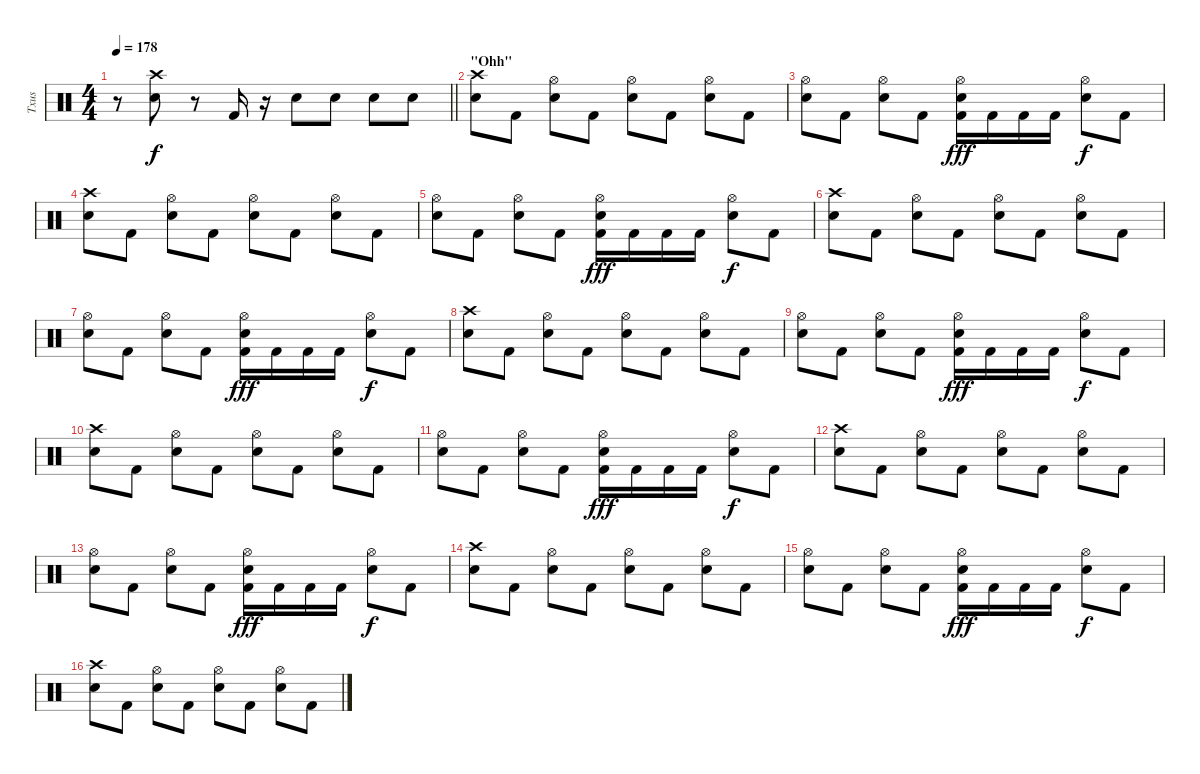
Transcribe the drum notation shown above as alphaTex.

\track ("Txus" "Txus") {instrument percussion}
\staff {score}
\articulation defaults
\ts (4 4)
\tempo 178
\clef neutral
\barLineRight lightlight
\ks c
r.8{dy f} ("Crash high (hit)" "Electric Snare (hit)").8 r.8 "Kick (hit) 2".16 r.16 "Electric Snare (hit)".8 "Electric Snare (hit)".8 "Electric Snare (hit)".8 "Electric Snare (hit)".8 |
\section ("" "\"Ohh\"")
("Crash high (hit)" "Electric Snare (hit)").8 "Kick (hit) 2".8 ("Hi-Hat (open)" "Electric Snare (hit)").8 "Kick (hit) 2".8 ("Hi-Hat (open)" "Electric Snare (hit)").8 "Kick (hit) 2".8 ("Hi-Hat (open)" "Electric Snare (hit)").8 "Kick (hit) 2".8 |
("Hi-Hat (open)" "Electric Snare (hit)").8 "Kick (hit) 2".8 ("Hi-Hat (open)" "Electric Snare (hit)").8 "Kick (hit) 2".8 ("Hi-Hat (open)" "Electric Snare (hit)" "Kick (hit) 2").16{dy fff} "Kick (hit) 2".16 "Kick (hit) 2".16 "Kick (hit) 2".16 ("Hi-Hat (open)" "Electric Snare (hit)").8{dy f} "Kick (hit) 2".8 |
("Crash high (hit)" "Electric Snare (hit)").8 "Kick (hit) 2".8 ("Hi-Hat (open)" "Electric Snare (hit)").8 "Kick (hit) 2".8 ("Hi-Hat (open)" "Electric Snare (hit)").8 "Kick (hit) 2".8 ("Hi-Hat (open)" "Electric Snare (hit)").8 "Kick (hit) 2".8 |
("Hi-Hat (open)" "Electric Snare (hit)").8 "Kick (hit) 2".8 ("Hi-Hat (open)" "Electric Snare (hit)").8 "Kick (hit) 2".8 ("Hi-Hat (open)" "Electric Snare (hit)" "Kick (hit) 2").16{dy fff} "Kick (hit) 2".16 "Kick (hit) 2".16 "Kick (hit) 2".16 ("Hi-Hat (open)" "Electric Snare (hit)").8{dy f} "Kick (hit) 2".8 |
("Crash high (hit)" "Electric Snare (hit)").8 "Kick (hit) 2".8 ("Hi-Hat (open)" "Electric Snare (hit)").8 "Kick (hit) 2".8 ("Hi-Hat (open)" "Electric Snare (hit)").8 "Kick (hit) 2".8 ("Hi-Hat (open)" "Electric Snare (hit)").8 "Kick (hit) 2".8 |
("Hi-Hat (open)" "Electric Snare (hit)").8 "Kick (hit) 2".8 ("Hi-Hat (open)" "Electric Snare (hit)").8 "Kick (hit) 2".8 ("Hi-Hat (open)" "Electric Snare (hit)" "Kick (hit) 2").16{dy fff} "Kick (hit) 2".16 "Kick (hit) 2".16 "Kick (hit) 2".16 ("Hi-Hat (open)" "Electric Snare (hit)").8{dy f} "Kick (hit) 2".8 |
("Crash high (hit)" "Electric Snare (hit)").8 "Kick (hit) 2".8 ("Hi-Hat (open)" "Electric Snare (hit)").8 "Kick (hit) 2".8 ("Hi-Hat (open)" "Electric Snare (hit)").8 "Kick (hit) 2".8 ("Hi-Hat (open)" "Electric Snare (hit)").8 "Kick (hit) 2".8 |
("Hi-Hat (open)" "Electric Snare (hit)").8 "Kick (hit) 2".8 ("Hi-Hat (open)" "Electric Snare (hit)").8 "Kick (hit) 2".8 ("Hi-Hat (open)" "Electric Snare (hit)" "Kick (hit) 2").16{dy fff} "Kick (hit) 2".16 "Kick (hit) 2".16 "Kick (hit) 2".16 ("Hi-Hat (open)" "Electric Snare (hit)").8{dy f} "Kick (hit) 2".8 |
("Crash high (hit)" "Electric Snare (hit)").8 "Kick (hit) 2".8 ("Hi-Hat (open)" "Electric Snare (hit)").8 "Kick (hit) 2".8 ("Hi-Hat (open)" "Electric Snare (hit)").8 "Kick (hit) 2".8 ("Hi-Hat (open)" "Electric Snare (hit)").8 "Kick (hit) 2".8 |
("Hi-Hat (open)" "Electric Snare (hit)").8 "Kick (hit) 2".8 ("Hi-Hat (open)" "Electric Snare (hit)").8 "Kick (hit) 2".8 ("Hi-Hat (open)" "Electric Snare (hit)" "Kick (hit) 2").16{dy fff} "Kick (hit) 2".16 "Kick (hit) 2".16 "Kick (hit) 2".16 ("Hi-Hat (open)" "Electric Snare (hit)").8{dy f} "Kick (hit) 2".8 |
("Crash high (hit)" "Electric Snare (hit)").8 "Kick (hit) 2".8 ("Hi-Hat (open)" "Electric Snare (hit)").8 "Kick (hit) 2".8 ("Hi-Hat (open)" "Electric Snare (hit)").8 "Kick (hit) 2".8 ("Hi-Hat (open)" "Electric Snare (hit)").8 "Kick (hit) 2".8 |
("Hi-Hat (open)" "Electric Snare (hit)").8 "Kick (hit) 2".8 ("Hi-Hat (open)" "Electric Snare (hit)").8 "Kick (hit) 2".8 ("Hi-Hat (open)" "Electric Snare (hit)" "Kick (hit) 2").16{dy fff} "Kick (hit) 2".16 "Kick (hit) 2".16 "Kick (hit) 2".16 ("Hi-Hat (open)" "Electric Snare (hit)").8{dy f} "Kick (hit) 2".8 |
("Crash high (hit)" "Electric Snare (hit)").8 "Kick (hit) 2".8 ("Hi-Hat (open)" "Electric Snare (hit)").8 "Kick (hit) 2".8 ("Hi-Hat (open)" "Electric Snare (hit)").8 "Kick (hit) 2".8 ("Hi-Hat (open)" "Electric Snare (hit)").8 "Kick (hit) 2".8 |
("Hi-Hat (open)" "Electric Snare (hit)").8 "Kick (hit) 2".8 ("Hi-Hat (open)" "Electric Snare (hit)").8 "Kick (hit) 2".8 ("Hi-Hat (open)" "Electric Snare (hit)" "Kick (hit) 2").16{dy fff} "Kick (hit) 2".16 "Kick (hit) 2".16 "Kick (hit) 2".16 ("Hi-Hat (open)" "Electric Snare (hit)").8{dy f} "Kick (hit) 2".8 |
("Crash high (hit)" "Electric Snare (hit)").8 "Kick (hit) 2".8 ("Hi-Hat (open)" "Electric Snare (hit)").8 "Kick (hit) 2".8 ("Hi-Hat (open)" "Electric Snare (hit)").8 "Kick (hit) 2".8 ("Hi-Hat (open)" "Electric Snare (hit)").8 "Kick (hit) 2".8
